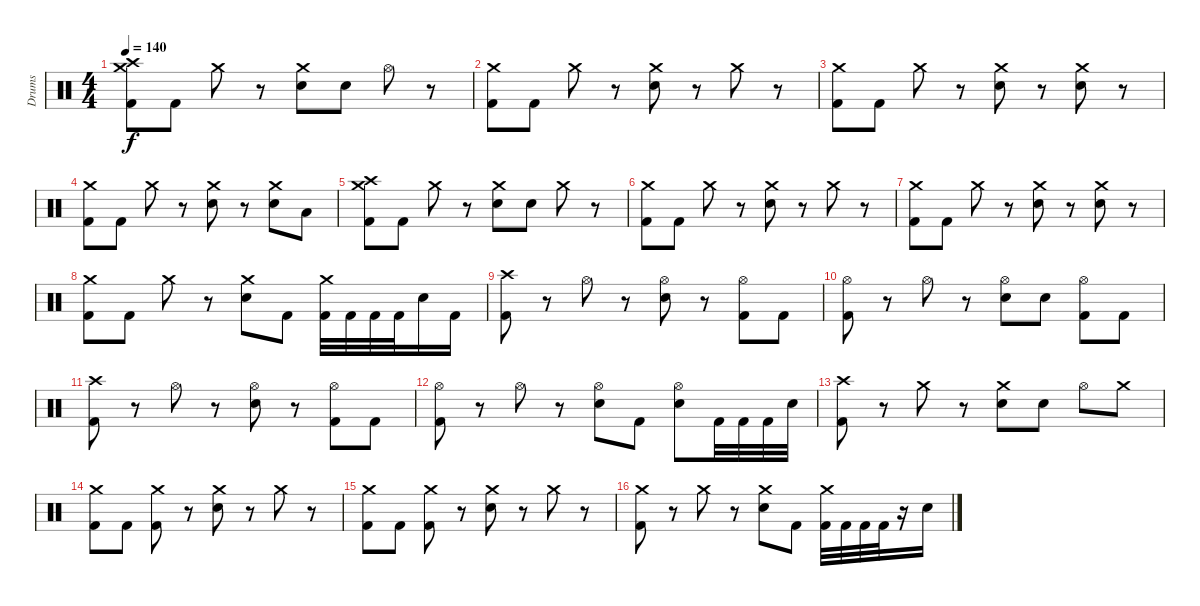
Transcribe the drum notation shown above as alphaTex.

\track ("Drums" "Drums") {instrument percussion}
\staff {score}
\articulation defaults
\ts (4 4)
\tempo 140
\clef neutral
\ks c
("Crash high (hit)" "Crash medium (hit)" "Kick (hit) 2").8{dy f} "Kick (hit) 2".8 "Crash medium (hit)".8 r.8 ("Crash medium (hit)" "Electric Snare (hit)").8 "Electric Snare (hit)".8 "Hi-Hat (open)".8 r.8 |
("Crash medium (hit)" "Kick (hit) 2").8 "Kick (hit) 2".8 "Crash medium (hit)".8 r.8 ("Crash medium (hit)" "Electric Snare (hit)").8 r.8 "Crash medium (hit)".8 r.8 |
("Crash medium (hit)" "Kick (hit) 2").8 "Kick (hit) 2".8 "Crash medium (hit)".8 r.8 ("Crash medium (hit)" "Electric Snare (hit)").8 r.8 ("Crash medium (hit)" "Electric Snare (hit)").8 r.8 |
("Crash medium (hit)" "Kick (hit) 2").8 "Kick (hit) 2".8 "Crash medium (hit)".8 r.8 ("Crash medium (hit)" "Electric Snare (hit)").8 r.8 ("Crash medium (hit)" "Electric Snare (hit)").8 "Low Tom (hit)".8 |
("Crash high (hit)" "Crash medium (hit)" "Kick (hit) 2").8 "Kick (hit) 2".8 "Crash medium (hit)".8 r.8 ("Crash medium (hit)" "Electric Snare (hit)").8 "Electric Snare (hit)".8 "Crash medium (hit)".8 r.8 |
("Crash medium (hit)" "Kick (hit) 2").8 "Kick (hit) 2".8 "Crash medium (hit)".8 r.8 ("Crash medium (hit)" "Electric Snare (hit)").8 r.8 "Crash medium (hit)".8 r.8 |
("Crash medium (hit)" "Kick (hit) 2").8 "Kick (hit) 2".8 "Crash medium (hit)".8 r.8 ("Crash medium (hit)" "Electric Snare (hit)").8 r.8 ("Crash medium (hit)" "Electric Snare (hit)").8 r.8 |
("Crash medium (hit)" "Kick (hit) 2").8 "Kick (hit) 2".8 "Crash medium (hit)".8 r.8 ("Crash medium (hit)" "Electric Snare (hit)").8 "Kick (hit) 2".8 ("Crash medium (hit)" "Kick (hit) 2").32 "Kick (hit) 2".32 "Kick (hit) 2".32 "Kick (hit) 2".32 "Electric Snare (hit)".16 "Kick (hit) 2".16 |
("Crash high (hit)" "Kick (hit) 2").8 r.8 "Hi-Hat (open)".8 r.8 ("Hi-Hat (open)" "Electric Snare (hit)").8 r.8 ("Hi-Hat (open)" "Kick (hit) 2").8 "Kick (hit) 2".8 |
("Hi-Hat (open)" "Kick (hit) 2").8 r.8 "Hi-Hat (open)".8 r.8 ("Hi-Hat (open)" "Electric Snare (hit)").8 "Electric Snare (hit)".8 ("Hi-Hat (open)" "Kick (hit) 2").8 "Kick (hit) 2".8 |
("Crash high (hit)" "Kick (hit) 2").8 r.8 "Hi-Hat (open)".8 r.8 ("Hi-Hat (open)" "Electric Snare (hit)").8 r.8 ("Hi-Hat (open)" "Kick (hit) 2").8 "Kick (hit) 2".8 |
("Hi-Hat (open)" "Kick (hit) 2").8 r.8 "Hi-Hat (open)".8 r.8 ("Hi-Hat (open)" "Electric Snare (hit)").8 "Kick (hit) 2".8 ("Hi-Hat (open)" "Electric Snare (hit)").8 "Kick (hit) 2".32 "Kick (hit) 2".32 "Kick (hit) 2".32 "Electric Snare (hit)".32 |
("Crash high (hit)" "Kick (hit) 2").8 r.8 "Crash medium (hit)".8 r.8 ("Crash medium (hit)" "Electric Snare (hit)").8 "Electric Snare (hit)".8 "Hi-Hat (open)".8 "Crash medium (hit)".8 |
("Crash medium (hit)" "Kick (hit) 2").8 "Kick (hit) 2".8 ("Crash medium (hit)" "Kick (hit) 2").8 r.8 ("Crash medium (hit)" "Electric Snare (hit)").8 r.8 "Crash medium (hit)".8 r.8 |
("Crash medium (hit)" "Kick (hit) 2").8 "Kick (hit) 2".8 ("Crash medium (hit)" "Kick (hit) 2").8 r.8 ("Crash medium (hit)" "Electric Snare (hit)").8 r.8 "Crash medium (hit)".8 r.8 |
("Crash medium (hit)" "Kick (hit) 2").8 r.8 "Crash medium (hit)".8 r.8 ("Crash medium (hit)" "Electric Snare (hit)").8 "Kick (hit) 2".8 ("Crash medium (hit)" "Kick (hit) 2").32 "Kick (hit) 2".32 "Kick (hit) 2".32 "Kick (hit) 2".32 r.16 "Electric Snare (hit)".16
